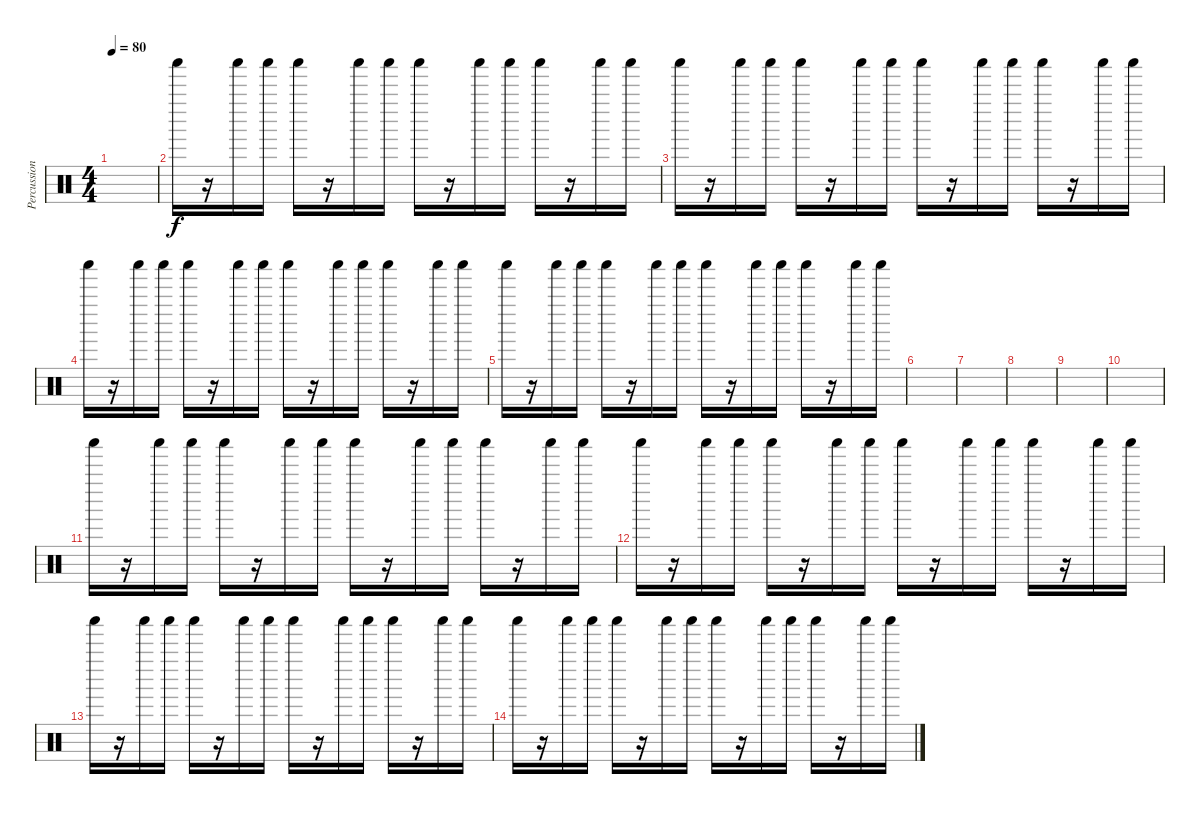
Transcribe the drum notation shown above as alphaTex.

\track ("Percussioni" "Percussion") {instrument percussion}
\staff {score}
\articulation defaults
\ts (4 4)
\tempo 80
\clef neutral
\ks c
|
"Shaker (hit)".16 r.16 "Shaker (hit)".16 "Shaker (hit)".16 "Shaker (hit)".16 r.16 "Shaker (hit)".16 "Shaker (hit)".16 "Shaker (hit)".16 r.16 "Shaker (hit)".16 "Shaker (hit)".16 "Shaker (hit)".16 r.16 "Shaker (hit)".16 "Shaker (hit)".16 |
"Shaker (hit)".16 r.16 "Shaker (hit)".16 "Shaker (hit)".16 "Shaker (hit)".16 r.16 "Shaker (hit)".16 "Shaker (hit)".16 "Shaker (hit)".16 r.16 "Shaker (hit)".16 "Shaker (hit)".16 "Shaker (hit)".16 r.16 "Shaker (hit)".16 "Shaker (hit)".16 |
"Shaker (hit)".16 r.16 "Shaker (hit)".16 "Shaker (hit)".16 "Shaker (hit)".16 r.16 "Shaker (hit)".16 "Shaker (hit)".16 "Shaker (hit)".16 r.16 "Shaker (hit)".16 "Shaker (hit)".16 "Shaker (hit)".16 r.16 "Shaker (hit)".16 "Shaker (hit)".16 |
"Shaker (hit)".16 r.16 "Shaker (hit)".16 "Shaker (hit)".16 "Shaker (hit)".16 r.16 "Shaker (hit)".16 "Shaker (hit)".16 "Shaker (hit)".16 r.16 "Shaker (hit)".16 "Shaker (hit)".16 "Shaker (hit)".16 r.16 "Shaker (hit)".16 "Shaker (hit)".16 |
|
|
|
|
|
"Shaker (hit)".16 r.16 "Shaker (hit)".16 "Shaker (hit)".16 "Shaker (hit)".16 r.16 "Shaker (hit)".16 "Shaker (hit)".16 "Shaker (hit)".16 r.16 "Shaker (hit)".16 "Shaker (hit)".16 "Shaker (hit)".16 r.16 "Shaker (hit)".16 "Shaker (hit)".16 |
"Shaker (hit)".16 r.16 "Shaker (hit)".16 "Shaker (hit)".16 "Shaker (hit)".16 r.16 "Shaker (hit)".16 "Shaker (hit)".16 "Shaker (hit)".16 r.16 "Shaker (hit)".16 "Shaker (hit)".16 "Shaker (hit)".16 r.16 "Shaker (hit)".16 "Shaker (hit)".16 |
"Shaker (hit)".16 r.16 "Shaker (hit)".16 "Shaker (hit)".16 "Shaker (hit)".16 r.16 "Shaker (hit)".16 "Shaker (hit)".16 "Shaker (hit)".16 r.16 "Shaker (hit)".16 "Shaker (hit)".16 "Shaker (hit)".16 r.16 "Shaker (hit)".16 "Shaker (hit)".16 |
"Shaker (hit)".16 r.16 "Shaker (hit)".16 "Shaker (hit)".16 "Shaker (hit)".16 r.16 "Shaker (hit)".16 "Shaker (hit)".16 "Shaker (hit)".16 r.16 "Shaker (hit)".16 "Shaker (hit)".16 "Shaker (hit)".16 r.16 "Shaker (hit)".16 "Shaker (hit)".16
